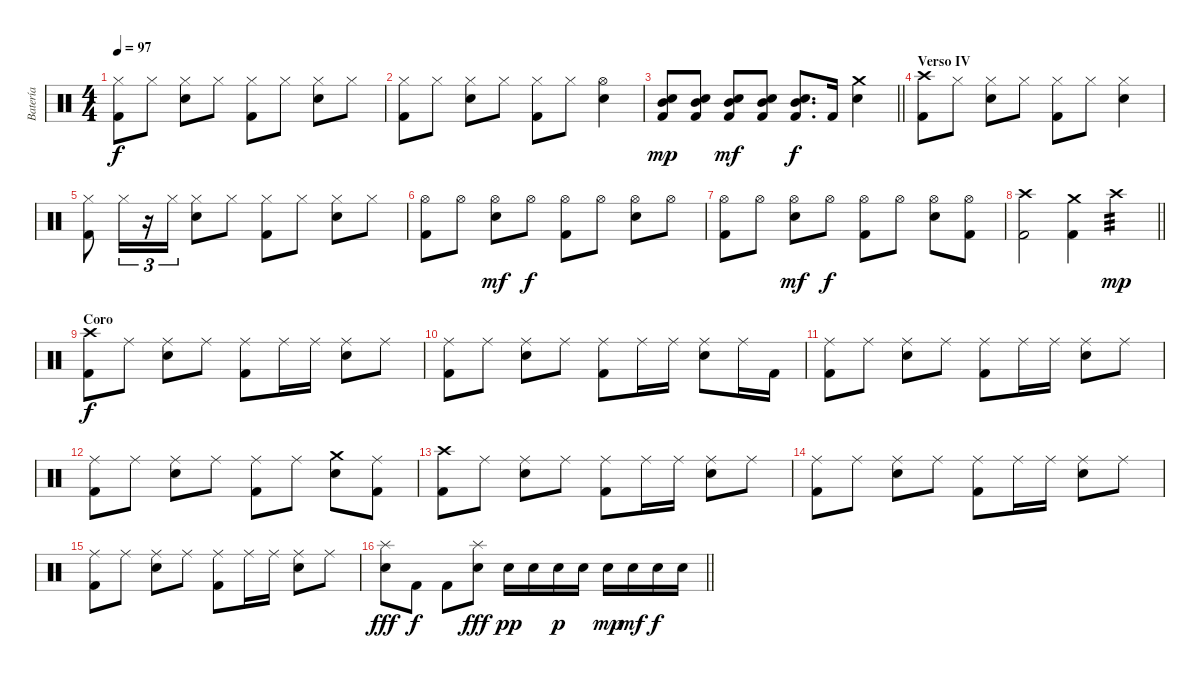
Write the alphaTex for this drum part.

\track ("Batería" "Batería") {instrument percussion}
\staff {score}
\articulation defaults
\ts (4 4)
\tempo 97
\clef neutral
\ks c
("Hi-Hat (closed)" "Kick (hit) 2").8{dy f} "Hi-Hat (closed)".8 ("Hi-Hat (closed)" "Snare (hit) 2").8 "Hi-Hat (closed)".8 ("Hi-Hat (closed)" "Kick (hit) 2").8 "Hi-Hat (closed)".8 ("Hi-Hat (closed)" "Snare (hit) 2").8 "Hi-Hat (closed)".8 |
("Hi-Hat (closed)" "Kick (hit) 2").8 "Hi-Hat (closed)".8 ("Hi-Hat (closed)" "Snare (hit) 2").8 "Hi-Hat (closed)".8 ("Hi-Hat (closed)" "Kick (hit) 2").8 "Hi-Hat (closed)".8 ("Hi-Hat (open)" "Snare (hit) 2").4 |
\barLineRight lightlight
("Snare (hit) 2" "Mid Tom (hit)" "Kick (hit) 2").8{dy mp} ("Snare (hit) 2" "Mid Tom (hit)" "Kick (hit) 2").8 ("Snare (hit) 2" "Mid Tom (hit)" "Kick (hit) 2").8{dy mf} ("Snare (hit) 2" "Mid Tom (hit)" "Kick (hit) 2").8 ("Snare (hit) 2" "Mid Tom (hit)" "Kick (hit) 2").8{d dy f} "Kick (hit) 2".16 ("Snare (hit) 2" "Crash medium (hit)").4 |
\section ("" "Verso IV")
("Crash high (hit)" "Kick (hit) 2").8 "Hi-Hat (closed)".8 ("Hi-Hat (closed)" "Snare (hit) 2").8 "Hi-Hat (closed)".8 ("Hi-Hat (closed)" "Kick (hit) 2").8 "Hi-Hat (closed)".8 ("Hi-Hat (closed)" "Snare (hit) 2").4 |
("Hi-Hat (closed)" "Kick (hit) 2").8 "Hi-Hat (closed)".16{tu (3 2)} r.16{tu (3 2)} "Hi-Hat (closed)".16{tu (3 2)} ("Hi-Hat (closed)" "Snare (hit) 2").8 "Hi-Hat (closed)".8 ("Hi-Hat (closed)" "Kick (hit) 2").8 "Hi-Hat (closed)".8 ("Hi-Hat (closed)" "Snare (hit) 2").8 "Hi-Hat (closed)".8 |
("Hi-Hat (open)" "Kick (hit) 2").8 "Hi-Hat (open)".8 ("Hi-Hat (open)" "Snare (hit) 2").8{dy mf} "Hi-Hat (open)".8{dy f} ("Hi-Hat (open)" "Kick (hit) 2").8 "Hi-Hat (open)".8 ("Hi-Hat (open)" "Snare (hit) 2").8 "Hi-Hat (open)".8 |
("Hi-Hat (open)" "Kick (hit) 2").8 "Hi-Hat (open)".8 ("Hi-Hat (open)" "Snare (hit) 2").8{dy mf} "Hi-Hat (open)".8{dy f} ("Hi-Hat (open)" "Kick (hit) 2").8 "Hi-Hat (open)".8 ("Hi-Hat (open)" "Snare (hit) 2").8 ("Hi-Hat (open)" "Kick (hit) 2").8 |
\barLineRight lightlight
("Crash high (hit)" "Kick (hit) 2").2 ("Kick (hit) 2" "Crash medium (hit)").4 "Crash high (hit)".4{tp 3 dy mp} |
\section ("" "Coro")
("Crash high (hit)" "Kick (hit) 2").8{dy f} "Ride (middle)".8 ("Ride (middle)" "Snare (hit) 2").8 "Ride (middle)".8 ("Ride (middle)" "Kick (hit) 2").8 "Ride (middle)".16 "Ride (middle)".16 ("Ride (middle)" "Snare (hit) 2").8 "Ride (middle)".8 |
("Ride (middle)" "Kick (hit) 2").8 "Ride (middle)".8 ("Ride (middle)" "Snare (hit) 2").8 "Ride (middle)".8 ("Ride (middle)" "Kick (hit) 2").8 "Ride (middle)".16 "Ride (middle)".16 ("Ride (middle)" "Snare (hit) 2").8 "Ride (middle)".16 "Kick (hit) 2".16 |
("Ride (middle)" "Kick (hit) 2").8 "Ride (middle)".8 ("Ride (middle)" "Snare (hit) 2").8 "Ride (middle)".8 ("Ride (middle)" "Kick (hit) 2").8 "Ride (middle)".16 "Ride (middle)".16 ("Ride (middle)" "Snare (hit) 2").8 "Ride (middle)".8 |
("Ride (middle)" "Kick (hit) 2").8 "Ride (middle)".8 ("Ride (middle)" "Snare (hit) 2").8 "Ride (middle)".8 ("Ride (middle)" "Kick (hit) 2").8 "Ride (middle)".8 ("Crash medium (hit)" "Snare (hit) 2").8 ("Ride (middle)" "Kick (hit) 2").8 |
("Crash high (hit)" "Kick (hit) 2").8 "Ride (middle)".8 ("Ride (middle)" "Snare (hit) 2").8 "Ride (middle)".8 ("Ride (middle)" "Kick (hit) 2").8 "Ride (middle)".16 "Ride (middle)".16 ("Ride (middle)" "Snare (hit) 2").8 "Ride (middle)".8 |
("Ride (middle)" "Kick (hit) 2").8 "Ride (middle)".8 ("Ride (middle)" "Snare (hit) 2").8 "Ride (middle)".8 ("Ride (middle)" "Kick (hit) 2").8 "Ride (middle)".16 "Ride (middle)".16 ("Ride (middle)" "Snare (hit) 2").8 "Ride (middle)".8 |
("Ride (middle)" "Kick (hit) 2").8 "Ride (middle)".8 ("Ride (middle)" "Snare (hit) 2").8 "Ride (middle)".8 ("Ride (middle)" "Kick (hit) 2").8 "Ride (middle)".16 "Ride (middle)".16 ("Ride (middle)" "Snare (hit) 2").8 "Ride (middle)".8 |
\barLineRight lightlight
("Splash (hit)" "Snare (hit) 2").8{dy fff} "Kick (hit) 2".8{dy f} "Kick (hit) 2".8 ("Splash (hit)" "Snare (hit) 2").8{dy fff} "Snare (hit) 2".16{dy pp} "Snare (hit) 2".16 "Snare (hit) 2".16{dy p} "Snare (hit) 2".16 "Snare (hit) 2".16{dy mp} "Snare (hit) 2".16{dy mf} "Snare (hit) 2".16{dy f} "Snare (hit) 2".16
